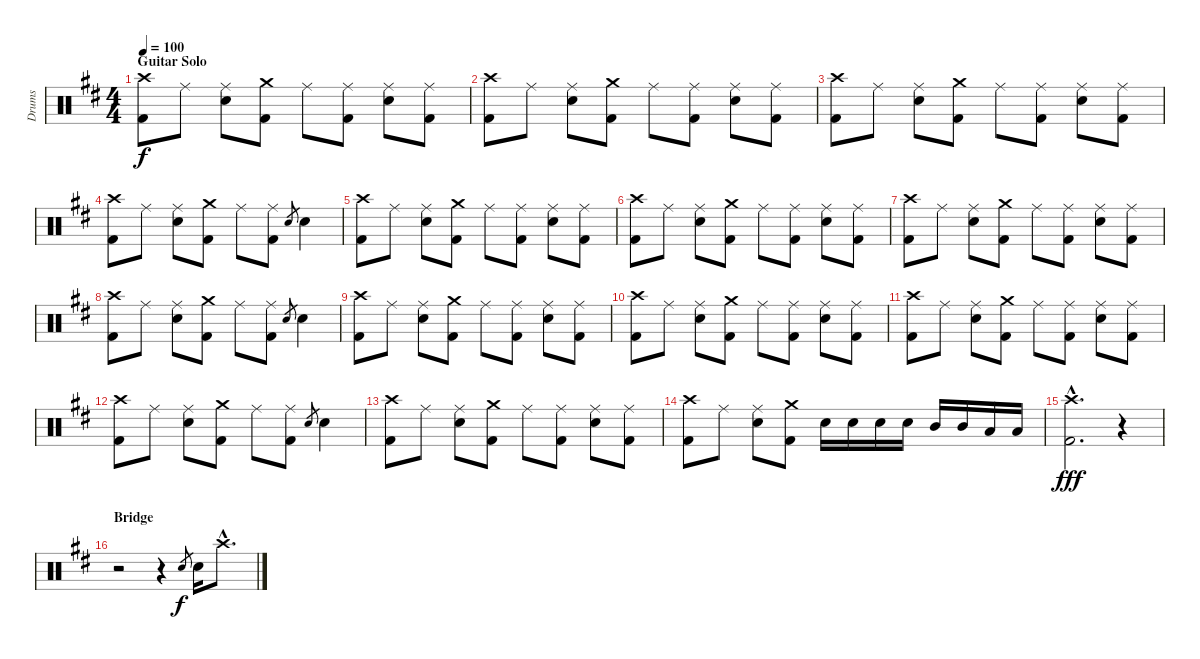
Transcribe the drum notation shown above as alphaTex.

\track ("Drums" "Drums") {instrument percussion}
\staff {score}
\articulation defaults
\ts (4 4)
\section ("" "Guitar Solo")
\tempo 100
\clef neutral
\ks bminor
("Crash high (hit)" "Kick (hit) 2").8{dy f} "Ride (middle)".8 ("Ride (middle)" "Snare (hit) 2").8 ("Crash medium (hit)" "Kick (hit) 2").8 "Ride (middle)".8 ("Ride (middle)" "Kick (hit) 2").8 ("Ride (middle)" "Snare (hit) 2").8 ("Ride (middle)" "Kick (hit) 2").8 |
("Crash high (hit)" "Kick (hit) 2").8 "Ride (middle)".8 ("Ride (middle)" "Snare (hit) 2").8 ("Crash medium (hit)" "Kick (hit) 2").8 "Ride (middle)".8 ("Ride (middle)" "Kick (hit) 2").8 ("Ride (middle)" "Snare (hit) 2").8 ("Ride (middle)" "Kick (hit) 2").8 |
("Crash high (hit)" "Kick (hit) 2").8 "Ride (middle)".8 ("Ride (middle)" "Snare (hit) 2").8 ("Crash medium (hit)" "Kick (hit) 2").8 "Ride (middle)".8 ("Ride (middle)" "Kick (hit) 2").8 ("Ride (middle)" "Snare (hit) 2").8 ("Ride (middle)" "Kick (hit) 2").8 |
("Crash high (hit)" "Kick (hit) 2").8 "Ride (middle)".8 ("Ride (middle)" "Snare (hit) 2").8 ("Crash medium (hit)" "Kick (hit) 2").8 "Ride (middle)".8 ("Ride (middle)" "Kick (hit) 2").8 "Snare (hit) 2".8{gr} "Snare (hit) 2".4 |
("Crash high (hit)" "Kick (hit) 2").8 "Ride (middle)".8 ("Ride (middle)" "Snare (hit) 2").8 ("Crash medium (hit)" "Kick (hit) 2").8 "Ride (middle)".8 ("Ride (middle)" "Kick (hit) 2").8 ("Ride (middle)" "Snare (hit) 2").8 ("Ride (middle)" "Kick (hit) 2").8 |
("Crash high (hit)" "Kick (hit) 2").8 "Ride (middle)".8 ("Ride (middle)" "Snare (hit) 2").8 ("Crash medium (hit)" "Kick (hit) 2").8 "Ride (middle)".8 ("Ride (middle)" "Kick (hit) 2").8 ("Ride (middle)" "Snare (hit) 2").8 ("Ride (middle)" "Kick (hit) 2").8 |
("Crash high (hit)" "Kick (hit) 2").8 "Ride (middle)".8 ("Ride (middle)" "Snare (hit) 2").8 ("Crash medium (hit)" "Kick (hit) 2").8 "Ride (middle)".8 ("Ride (middle)" "Kick (hit) 2").8 ("Ride (middle)" "Snare (hit) 2").8 ("Ride (middle)" "Kick (hit) 2").8 |
("Crash high (hit)" "Kick (hit) 2").8 "Ride (middle)".8 ("Ride (middle)" "Snare (hit) 2").8 ("Crash medium (hit)" "Kick (hit) 2").8 "Ride (middle)".8 ("Ride (middle)" "Kick (hit) 2").8 "Snare (hit) 2".8{gr} "Snare (hit) 2".4 |
("Crash high (hit)" "Kick (hit) 2").8 "Ride (middle)".8 ("Ride (middle)" "Snare (hit) 2").8 ("Crash medium (hit)" "Kick (hit) 2").8 "Ride (middle)".8 ("Ride (middle)" "Kick (hit) 2").8 ("Ride (middle)" "Snare (hit) 2").8 ("Ride (middle)" "Kick (hit) 2").8 |
("Crash high (hit)" "Kick (hit) 2").8 "Ride (middle)".8 ("Ride (middle)" "Snare (hit) 2").8 ("Crash medium (hit)" "Kick (hit) 2").8 "Ride (middle)".8 ("Ride (middle)" "Kick (hit) 2").8 ("Ride (middle)" "Snare (hit) 2").8 ("Ride (middle)" "Kick (hit) 2").8 |
("Crash high (hit)" "Kick (hit) 2").8 "Ride (middle)".8 ("Ride (middle)" "Snare (hit) 2").8 ("Crash medium (hit)" "Kick (hit) 2").8 "Ride (middle)".8 ("Ride (middle)" "Kick (hit) 2").8 ("Ride (middle)" "Snare (hit) 2").8 ("Ride (middle)" "Kick (hit) 2").8 |
("Crash high (hit)" "Kick (hit) 2").8 "Ride (middle)".8 ("Ride (middle)" "Snare (hit) 2").8 ("Crash medium (hit)" "Kick (hit) 2").8 "Ride (middle)".8 ("Ride (middle)" "Kick (hit) 2").8 "Snare (hit) 2".8{gr} "Snare (hit) 2".4 |
("Crash high (hit)" "Kick (hit) 2").8 "Ride (middle)".8 ("Ride (middle)" "Snare (hit) 2").8 ("Crash medium (hit)" "Kick (hit) 2").8 "Ride (middle)".8 ("Ride (middle)" "Kick (hit) 2").8 ("Ride (middle)" "Snare (hit) 2").8 ("Ride (middle)" "Kick (hit) 2").8 |
("Crash high (hit)" "Kick (hit) 2").8 "Ride (middle)".8 ("Ride (middle)" "Snare (hit) 2").8 ("Crash medium (hit)" "Kick (hit) 2").8 "Snare (hit) 2".16 "Snare (hit) 2".16 "Snare (hit) 2".16 "Snare (hit) 2".16 "Mid Tom (hit)".16 "Mid Tom (hit)".16 "Low Tom (hit)".16 "Low Tom (hit)".16 |
("Crash high (hit)"{hac} "Kick (hit) 2"{hac}).2{d dy fff} r.4 |
\section ("" "Bridge")
r.2 r.4 "Snare (hit) 2".8{gr dy f} "Snare (hit) 2".16 "Crash high (hit)"{hac}.8{d}
